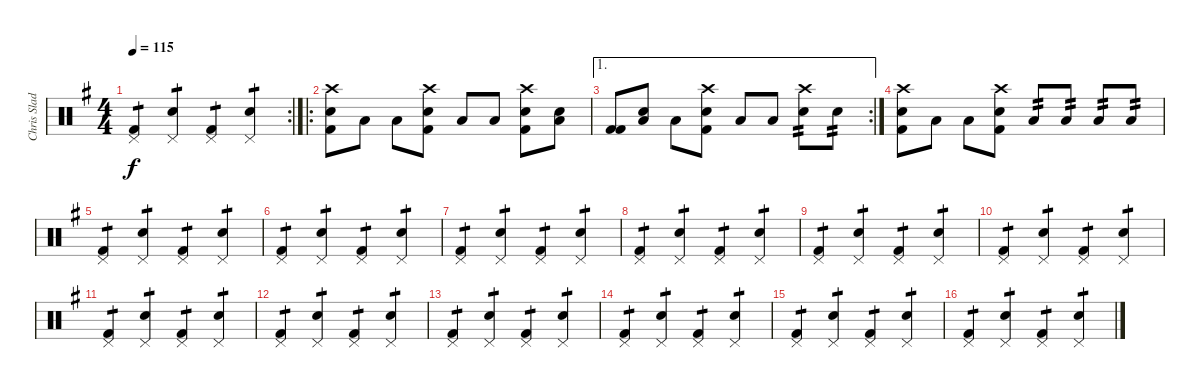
\track ("Chris Slade" "Chris Slad") {instrument percussion}
\staff {score}
\articulation defaults
\rc 2
\ts (4 4)
\tempo 115
\clef neutral
\ks g
("Kick (hit) 2" "Pedal Hi-Hat (hit)").4{tp 1 dy f} ("Snare (hit) 2" "Pedal Hi-Hat (hit)").4{tp 1} ("Kick (hit) 2" "Pedal Hi-Hat (hit)").4{tp 1} ("Snare (hit) 2" "Pedal Hi-Hat (hit)").4{tp 1} |
\ro
("Kick (hit) 2" "Snare (hit) 2" "Crash high (hit)").8 "Low Floor Tom (hit)".8 "Low Floor Tom (hit)".8 ("Kick (hit) 2" "Snare (hit) 2" "Crash high (hit)").8 "Low Floor Tom (hit)".8 "Low Floor Tom (hit)".8 ("Kick (hit) 2" "Snare (hit) 2" "Crash high (hit)").8 ("Low Floor Tom (hit)" "Snare (hit) 2").8 |
\ae 1
\rc 2
("Kick (hit) 2" "Kick (hit) 2").8 ("Low Floor Tom (hit)" "Snare (hit) 2").8 "Low Floor Tom (hit)".8 ("Kick (hit) 2" "Snare (hit) 2" "Crash high (hit)").8 "Low Floor Tom (hit)".8 "Low Floor Tom (hit)".8 ("Snare (hit) 2" "Crash high (hit)").8{tp 2} "Snare (hit) 2".8{tp 2} |
("Kick (hit) 2" "Snare (hit) 2" "Crash high (hit)").8 "Low Floor Tom (hit)".8 "Low Floor Tom (hit)".8 ("Kick (hit) 2" "Snare (hit) 2" "Crash high (hit)").8 "Low Floor Tom (hit)".8{tp 2} "Low Floor Tom (hit)".8{tp 2} "Low Floor Tom (hit)".8{tp 2} "Low Floor Tom (hit)".8{tp 2} |
("Kick (hit) 2" "Pedal Hi-Hat (hit)").4{tp 1} ("Snare (hit) 2" "Pedal Hi-Hat (hit)").4{tp 1} ("Kick (hit) 2" "Pedal Hi-Hat (hit)").4{tp 1} ("Snare (hit) 2" "Pedal Hi-Hat (hit)").4{tp 1} |
("Kick (hit) 2" "Pedal Hi-Hat (hit)").4{tp 1} ("Snare (hit) 2" "Pedal Hi-Hat (hit)").4{tp 1} ("Kick (hit) 2" "Pedal Hi-Hat (hit)").4{tp 1} ("Snare (hit) 2" "Pedal Hi-Hat (hit)").4{tp 1} |
("Kick (hit) 2" "Pedal Hi-Hat (hit)").4{tp 1} ("Snare (hit) 2" "Pedal Hi-Hat (hit)").4{tp 1} ("Kick (hit) 2" "Pedal Hi-Hat (hit)").4{tp 1} ("Snare (hit) 2" "Pedal Hi-Hat (hit)").4{tp 1} |
("Kick (hit) 2" "Pedal Hi-Hat (hit)").4{tp 1} ("Snare (hit) 2" "Pedal Hi-Hat (hit)").4{tp 1} ("Kick (hit) 2" "Pedal Hi-Hat (hit)").4{tp 1} ("Snare (hit) 2" "Pedal Hi-Hat (hit)").4{tp 1} |
("Kick (hit) 2" "Pedal Hi-Hat (hit)").4{tp 1} ("Snare (hit) 2" "Pedal Hi-Hat (hit)").4{tp 1} ("Kick (hit) 2" "Pedal Hi-Hat (hit)").4{tp 1} ("Snare (hit) 2" "Pedal Hi-Hat (hit)").4{tp 1} |
("Kick (hit) 2" "Pedal Hi-Hat (hit)").4{tp 1} ("Snare (hit) 2" "Pedal Hi-Hat (hit)").4{tp 1} ("Kick (hit) 2" "Pedal Hi-Hat (hit)").4{tp 1} ("Snare (hit) 2" "Pedal Hi-Hat (hit)").4{tp 1} |
("Kick (hit) 2" "Pedal Hi-Hat (hit)").4{tp 1} ("Snare (hit) 2" "Pedal Hi-Hat (hit)").4{tp 1} ("Kick (hit) 2" "Pedal Hi-Hat (hit)").4{tp 1} ("Snare (hit) 2" "Pedal Hi-Hat (hit)").4{tp 1} |
("Kick (hit) 2" "Pedal Hi-Hat (hit)").4{tp 1} ("Snare (hit) 2" "Pedal Hi-Hat (hit)").4{tp 1} ("Kick (hit) 2" "Pedal Hi-Hat (hit)").4{tp 1} ("Snare (hit) 2" "Pedal Hi-Hat (hit)").4{tp 1} |
("Kick (hit) 2" "Pedal Hi-Hat (hit)").4{tp 1} ("Snare (hit) 2" "Pedal Hi-Hat (hit)").4{tp 1} ("Kick (hit) 2" "Pedal Hi-Hat (hit)").4{tp 1} ("Snare (hit) 2" "Pedal Hi-Hat (hit)").4{tp 1} |
("Kick (hit) 2" "Pedal Hi-Hat (hit)").4{tp 1} ("Snare (hit) 2" "Pedal Hi-Hat (hit)").4{tp 1} ("Kick (hit) 2" "Pedal Hi-Hat (hit)").4{tp 1} ("Snare (hit) 2" "Pedal Hi-Hat (hit)").4{tp 1} |
("Kick (hit) 2" "Pedal Hi-Hat (hit)").4{tp 1} ("Snare (hit) 2" "Pedal Hi-Hat (hit)").4{tp 1} ("Kick (hit) 2" "Pedal Hi-Hat (hit)").4{tp 1} ("Snare (hit) 2" "Pedal Hi-Hat (hit)").4{tp 1} |
("Kick (hit) 2" "Pedal Hi-Hat (hit)").4{tp 1} ("Snare (hit) 2" "Pedal Hi-Hat (hit)").4{tp 1} ("Kick (hit) 2" "Pedal Hi-Hat (hit)").4{tp 1} ("Snare (hit) 2" "Pedal Hi-Hat (hit)").4{tp 1}
